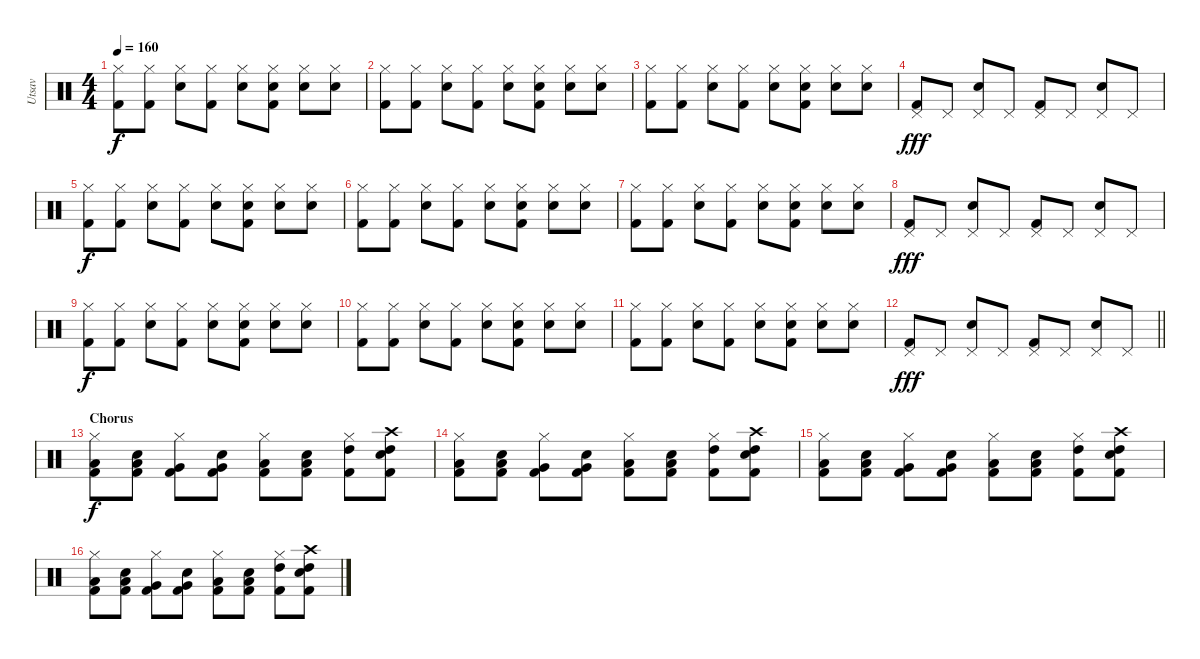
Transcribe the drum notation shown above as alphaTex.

\track ("Utsav" "Utsav") {instrument percussion}
\staff {score}
\articulation defaults
\ts (4 4)
\tempo 160
\clef neutral
\ks c
("Hi-Hat (closed)" "Kick (hit) 2").8{dy f} ("Hi-Hat (closed)" "Kick (hit) 2").8 ("Hi-Hat (closed)" "Electric Snare (hit)").8 ("Hi-Hat (closed)" "Kick (hit) 2").8 ("Hi-Hat (closed)" "Electric Snare (hit)").8 ("Hi-Hat (closed)" "Snare (hit) 2" "Kick (hit) 2").8 ("Hi-Hat (closed)" "Snare (hit) 2").8 ("Hi-Hat (closed)" "Snare (hit) 2").8 |
("Hi-Hat (closed)" "Kick (hit) 2").8 ("Hi-Hat (closed)" "Kick (hit) 2").8 ("Hi-Hat (closed)" "Electric Snare (hit)").8 ("Hi-Hat (closed)" "Kick (hit) 2").8 ("Hi-Hat (closed)" "Electric Snare (hit)").8 ("Hi-Hat (closed)" "Snare (hit) 2" "Kick (hit) 2").8 ("Hi-Hat (closed)" "Snare (hit) 2").8 ("Hi-Hat (closed)" "Snare (hit) 2").8 |
("Hi-Hat (closed)" "Kick (hit) 2").8 ("Hi-Hat (closed)" "Kick (hit) 2").8 ("Hi-Hat (closed)" "Electric Snare (hit)").8 ("Hi-Hat (closed)" "Kick (hit) 2").8 ("Hi-Hat (closed)" "Electric Snare (hit)").8 ("Hi-Hat (closed)" "Snare (hit) 2" "Kick (hit) 2").8 ("Hi-Hat (closed)" "Snare (hit) 2").8 ("Hi-Hat (closed)" "Snare (hit) 2").8 |
("Pedal Hi-Hat (hit)" "Kick (hit) 2").8{dy fff} "Pedal Hi-Hat (hit)".8 ("Pedal Hi-Hat (hit)" "Electric Snare (hit)").8 "Pedal Hi-Hat (hit)".8 ("Pedal Hi-Hat (hit)" "Kick (hit) 2").8 "Pedal Hi-Hat (hit)".8 ("Pedal Hi-Hat (hit)" "Electric Snare (hit)").8 "Pedal Hi-Hat (hit)".8 |
("Hi-Hat (closed)" "Kick (hit) 2").8{dy f} ("Hi-Hat (closed)" "Kick (hit) 2").8 ("Hi-Hat (closed)" "Electric Snare (hit)").8 ("Hi-Hat (closed)" "Kick (hit) 2").8 ("Hi-Hat (closed)" "Electric Snare (hit)").8 ("Hi-Hat (closed)" "Snare (hit) 2" "Kick (hit) 2").8 ("Hi-Hat (closed)" "Snare (hit) 2").8 ("Hi-Hat (closed)" "Snare (hit) 2").8 |
("Hi-Hat (closed)" "Kick (hit) 2").8 ("Hi-Hat (closed)" "Kick (hit) 2").8 ("Hi-Hat (closed)" "Electric Snare (hit)").8 ("Hi-Hat (closed)" "Kick (hit) 2").8 ("Hi-Hat (closed)" "Electric Snare (hit)").8 ("Hi-Hat (closed)" "Snare (hit) 2" "Kick (hit) 2").8 ("Hi-Hat (closed)" "Snare (hit) 2").8 ("Hi-Hat (closed)" "Snare (hit) 2").8 |
("Hi-Hat (closed)" "Kick (hit) 2").8 ("Hi-Hat (closed)" "Kick (hit) 2").8 ("Hi-Hat (closed)" "Electric Snare (hit)").8 ("Hi-Hat (closed)" "Kick (hit) 2").8 ("Hi-Hat (closed)" "Electric Snare (hit)").8 ("Hi-Hat (closed)" "Snare (hit) 2" "Kick (hit) 2").8 ("Hi-Hat (closed)" "Snare (hit) 2").8 ("Hi-Hat (closed)" "Snare (hit) 2").8 |
("Pedal Hi-Hat (hit)" "Kick (hit) 2").8{dy fff} "Pedal Hi-Hat (hit)".8 ("Pedal Hi-Hat (hit)" "Electric Snare (hit)").8 "Pedal Hi-Hat (hit)".8 ("Pedal Hi-Hat (hit)" "Kick (hit) 2").8 "Pedal Hi-Hat (hit)".8 ("Pedal Hi-Hat (hit)" "Electric Snare (hit)").8 "Pedal Hi-Hat (hit)".8 |
("Hi-Hat (closed)" "Kick (hit) 2").8{dy f} ("Hi-Hat (closed)" "Kick (hit) 2").8 ("Hi-Hat (closed)" "Electric Snare (hit)").8 ("Hi-Hat (closed)" "Kick (hit) 2").8 ("Hi-Hat (closed)" "Electric Snare (hit)").8 ("Hi-Hat (closed)" "Snare (hit) 2" "Kick (hit) 2").8 ("Hi-Hat (closed)" "Snare (hit) 2").8 ("Hi-Hat (closed)" "Snare (hit) 2").8 |
("Hi-Hat (closed)" "Kick (hit) 2").8 ("Hi-Hat (closed)" "Kick (hit) 2").8 ("Hi-Hat (closed)" "Electric Snare (hit)").8 ("Hi-Hat (closed)" "Kick (hit) 2").8 ("Hi-Hat (closed)" "Electric Snare (hit)").8 ("Hi-Hat (closed)" "Snare (hit) 2" "Kick (hit) 2").8 ("Hi-Hat (closed)" "Snare (hit) 2").8 ("Hi-Hat (closed)" "Snare (hit) 2").8 |
("Hi-Hat (closed)" "Kick (hit) 2").8 ("Hi-Hat (closed)" "Kick (hit) 2").8 ("Hi-Hat (closed)" "Electric Snare (hit)").8 ("Hi-Hat (closed)" "Kick (hit) 2").8 ("Hi-Hat (closed)" "Electric Snare (hit)").8 ("Hi-Hat (closed)" "Snare (hit) 2" "Kick (hit) 2").8 ("Hi-Hat (closed)" "Snare (hit) 2").8 ("Hi-Hat (closed)" "Snare (hit) 2").8 |
\barLineRight lightlight
("Pedal Hi-Hat (hit)" "Kick (hit) 2").8{dy fff} "Pedal Hi-Hat (hit)".8 ("Pedal Hi-Hat (hit)" "Electric Snare (hit)").8 "Pedal Hi-Hat (hit)".8 ("Pedal Hi-Hat (hit)" "Kick (hit) 2").8 "Pedal Hi-Hat (hit)".8 ("Pedal Hi-Hat (hit)" "Electric Snare (hit)").8 "Pedal Hi-Hat (hit)".8 |
\section ("" "Chorus")
("Low Tom (hit)" "Hi-Hat (closed)" "Kick (hit) 2").8{dy f} ("Low Tom (hit)" "Snare (hit) 2" "Kick (hit) 2").8 ("Very Low Tom (hit)" "Hi-Hat (closed)" "Kick (hit) 2").8 ("Very Low Tom (hit)" "Snare (hit) 2" "Kick (hit) 2").8 ("Low Floor Tom (hit)" "Hi-Hat (closed)" "Kick (hit) 2").8 ("Low Floor Tom (hit)" "Snare (hit) 2" "Kick (hit) 2").8 ("High Tom (hit)" "Hi-Hat (closed)" "Kick (hit) 2").8 ("High Tom (hit)" "Crash high (hit)" "Snare (hit) 2" "Kick (hit) 2").8 |
("Low Tom (hit)" "Hi-Hat (closed)" "Kick (hit) 2").8 ("Low Tom (hit)" "Snare (hit) 2" "Kick (hit) 2").8 ("Very Low Tom (hit)" "Hi-Hat (closed)" "Kick (hit) 2").8 ("Very Low Tom (hit)" "Snare (hit) 2" "Kick (hit) 2").8 ("Low Floor Tom (hit)" "Hi-Hat (closed)" "Kick (hit) 2").8 ("Low Floor Tom (hit)" "Snare (hit) 2" "Kick (hit) 2").8 ("High Tom (hit)" "Hi-Hat (closed)" "Kick (hit) 2").8 ("High Tom (hit)" "Crash high (hit)" "Snare (hit) 2" "Kick (hit) 2").8 |
("Low Tom (hit)" "Hi-Hat (closed)" "Kick (hit) 2").8 ("Low Tom (hit)" "Snare (hit) 2" "Kick (hit) 2").8 ("Very Low Tom (hit)" "Hi-Hat (closed)" "Kick (hit) 2").8 ("Very Low Tom (hit)" "Snare (hit) 2" "Kick (hit) 2").8 ("Low Floor Tom (hit)" "Hi-Hat (closed)" "Kick (hit) 2").8 ("Low Floor Tom (hit)" "Snare (hit) 2" "Kick (hit) 2").8 ("High Tom (hit)" "Hi-Hat (closed)" "Kick (hit) 2").8 ("High Tom (hit)" "Crash high (hit)" "Snare (hit) 2" "Kick (hit) 2").8 |
("Low Tom (hit)" "Hi-Hat (closed)" "Kick (hit) 2").8 ("Low Tom (hit)" "Snare (hit) 2" "Kick (hit) 2").8 ("Very Low Tom (hit)" "Hi-Hat (closed)" "Kick (hit) 2").8 ("Very Low Tom (hit)" "Snare (hit) 2" "Kick (hit) 2").8 ("Low Floor Tom (hit)" "Hi-Hat (closed)" "Kick (hit) 2").8 ("Low Floor Tom (hit)" "Snare (hit) 2" "Kick (hit) 2").8 ("High Tom (hit)" "Hi-Hat (closed)" "Kick (hit) 2").8 ("High Tom (hit)" "Crash high (hit)" "Snare (hit) 2" "Kick (hit) 2").8
